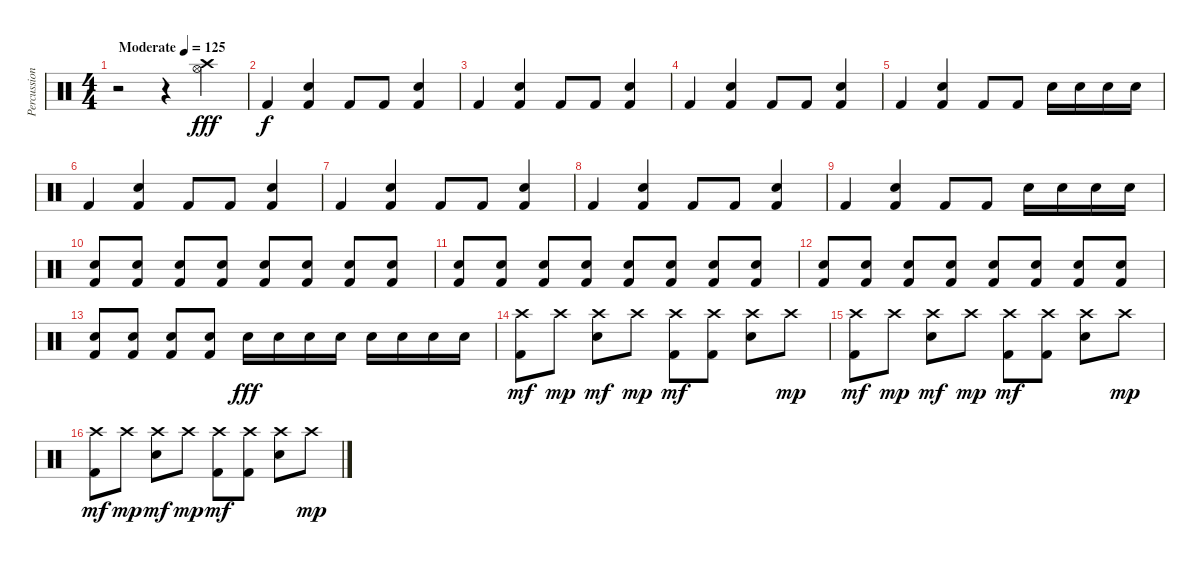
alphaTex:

\track ("Percussion" "Percussion") {instrument percussion}
\staff {score}
\articulation defaults
\ts (4 4)
\tempo (125 "Moderate")
\clef neutral
\ks c
r.2{dy fff} r.4 ("Crash high (hit)" "Hi-Hat (open)").4 |
"Kick (hit) 2".4{dy f} ("Electric Snare (hit)" "Kick (hit) 2").4 "Kick (hit) 2".8 "Kick (hit) 2".8 ("Electric Snare (hit)" "Kick (hit) 2").4 |
"Kick (hit) 2".4 ("Electric Snare (hit)" "Kick (hit) 2").4 "Kick (hit) 2".8 "Kick (hit) 2".8 ("Electric Snare (hit)" "Kick (hit) 2").4 |
"Kick (hit) 2".4 ("Electric Snare (hit)" "Kick (hit) 2").4 "Kick (hit) 2".8 "Kick (hit) 2".8 ("Electric Snare (hit)" "Kick (hit) 2").4 |
"Kick (hit) 2".4 ("Electric Snare (hit)" "Kick (hit) 2").4 "Kick (hit) 2".8 "Kick (hit) 2".8 "Electric Snare (hit)".16 "Electric Snare (hit)".16 "Electric Snare (hit)".16 "Electric Snare (hit)".16 |
"Kick (hit) 2".4 ("Electric Snare (hit)" "Kick (hit) 2").4 "Kick (hit) 2".8 "Kick (hit) 2".8 ("Electric Snare (hit)" "Kick (hit) 2").4 |
"Kick (hit) 2".4 ("Electric Snare (hit)" "Kick (hit) 2").4 "Kick (hit) 2".8 "Kick (hit) 2".8 ("Electric Snare (hit)" "Kick (hit) 2").4 |
"Kick (hit) 2".4 ("Electric Snare (hit)" "Kick (hit) 2").4 "Kick (hit) 2".8 "Kick (hit) 2".8 ("Electric Snare (hit)" "Kick (hit) 2").4 |
"Kick (hit) 2".4 ("Electric Snare (hit)" "Kick (hit) 2").4 "Kick (hit) 2".8 "Kick (hit) 2".8 "Electric Snare (hit)".16 "Electric Snare (hit)".16 "Electric Snare (hit)".16 "Electric Snare (hit)".16 |
("Electric Snare (hit)" "Kick (hit) 2").8{volume 16} ("Electric Snare (hit)" "Kick (hit) 2").8 ("Electric Snare (hit)" "Kick (hit) 2").8 ("Electric Snare (hit)" "Kick (hit) 2").8 ("Electric Snare (hit)" "Kick (hit) 2").8 ("Electric Snare (hit)" "Kick (hit) 2").8 ("Electric Snare (hit)" "Kick (hit) 2").8 ("Electric Snare (hit)" "Kick (hit) 2").8 |
("Electric Snare (hit)" "Kick (hit) 2").8 ("Electric Snare (hit)" "Kick (hit) 2").8 ("Electric Snare (hit)" "Kick (hit) 2").8 ("Electric Snare (hit)" "Kick (hit) 2").8 ("Electric Snare (hit)" "Kick (hit) 2").8 ("Electric Snare (hit)" "Kick (hit) 2").8 ("Electric Snare (hit)" "Kick (hit) 2").8 ("Electric Snare (hit)" "Kick (hit) 2").8 |
("Electric Snare (hit)" "Kick (hit) 2").8 ("Electric Snare (hit)" "Kick (hit) 2").8 ("Electric Snare (hit)" "Kick (hit) 2").8 ("Electric Snare (hit)" "Kick (hit) 2").8 ("Electric Snare (hit)" "Kick (hit) 2").8 ("Electric Snare (hit)" "Kick (hit) 2").8 ("Electric Snare (hit)" "Kick (hit) 2").8 ("Electric Snare (hit)" "Kick (hit) 2").8 |
("Electric Snare (hit)" "Kick (hit) 2").8 ("Electric Snare (hit)" "Kick (hit) 2").8 ("Electric Snare (hit)" "Kick (hit) 2").8 ("Electric Snare (hit)" "Kick (hit) 2").8 "Electric Snare (hit)".16{dy fff} "Electric Snare (hit)".16 "Electric Snare (hit)".16 "Electric Snare (hit)".16 "Electric Snare (hit)".16 "Electric Snare (hit)".16 "Electric Snare (hit)".16 "Electric Snare (hit)".16 |
("Crash high (hit)" "Kick (hit) 2").8{dy mf volume 16} "Crash high (hit)".8{dy mp} ("Crash high (hit)" "Electric Snare (hit)").8{dy mf} "Crash high (hit)".8{dy mp} ("Crash high (hit)" "Kick (hit) 2").8{dy mf} ("Crash high (hit)" "Kick (hit) 2").8 ("Crash high (hit)" "Electric Snare (hit)").8 "Crash high (hit)".8{dy mp} |
("Crash high (hit)" "Kick (hit) 2").8{dy mf} "Crash high (hit)".8{dy mp} ("Crash high (hit)" "Electric Snare (hit)").8{dy mf} "Crash high (hit)".8{dy mp} ("Crash high (hit)" "Kick (hit) 2").8{dy mf} ("Crash high (hit)" "Kick (hit) 2").8 ("Crash high (hit)" "Electric Snare (hit)").8 "Crash high (hit)".8{dy mp} |
("Crash high (hit)" "Kick (hit) 2").8{dy mf} "Crash high (hit)".8{dy mp} ("Crash high (hit)" "Electric Snare (hit)").8{dy mf} "Crash high (hit)".8{dy mp} ("Crash high (hit)" "Kick (hit) 2").8{dy mf} ("Crash high (hit)" "Kick (hit) 2").8 ("Crash high (hit)" "Electric Snare (hit)").8 "Crash high (hit)".8{dy mp}
